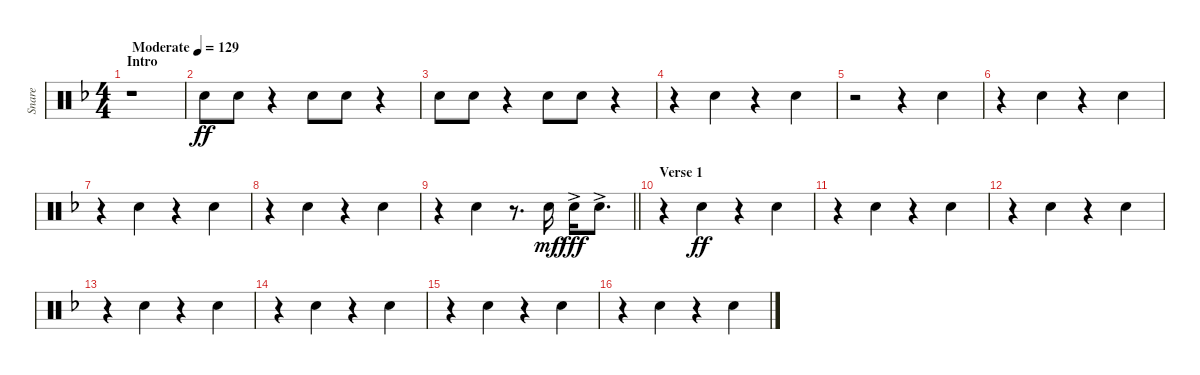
\track ("Snare" "Snare") {instrument percussion}
\staff {score}
\articulation defaults
\ts (4 4)
\section ("" "Intro")
\tempo (129 "Moderate")
\clef neutral
\ks dminor
r.1{dy ff} |
"Electric Snare (hit)".8{beam Down} "Electric Snare (hit)".8{beam Down} r.4 "Electric Snare (hit)".8{beam Down} "Electric Snare (hit)".8{beam Down} r.4 |
"Electric Snare (hit)".8 "Electric Snare (hit)".8 r.4 "Electric Snare (hit)".8 "Electric Snare (hit)".8 r.4 |
r.4 "Electric Snare (hit)".4 r.4 "Electric Snare (hit)".4 |
r.2 r.4 "Electric Snare (hit)".4 |
r.4 "Electric Snare (hit)".4 r.4 "Electric Snare (hit)".4 |
r.4 "Electric Snare (hit)".4 r.4 "Electric Snare (hit)".4 |
r.4 "Electric Snare (hit)".4 r.4 "Electric Snare (hit)".4 |
\barLineRight lightlight
r.4 "Electric Snare (hit)".4 r.8{d} "Electric Snare (hit)".16{dy mf} "Electric Snare (hit)"{ac}.16{dy fff} "Electric Snare (hit)"{ac}.8{d} |
\section ("" "Verse 1")
r.4 "Electric Snare (hit)".4{dy ff} r.4 "Electric Snare (hit)".4 |
r.4 "Electric Snare (hit)".4 r.4 "Electric Snare (hit)".4 |
r.4 "Electric Snare (hit)".4 r.4 "Electric Snare (hit)".4 |
r.4 "Electric Snare (hit)".4 r.4 "Electric Snare (hit)".4 |
r.4 "Electric Snare (hit)".4 r.4 "Electric Snare (hit)".4 |
r.4 "Electric Snare (hit)".4 r.4 "Electric Snare (hit)".4 |
r.4 "Electric Snare (hit)".4 r.4 "Electric Snare (hit)".4
